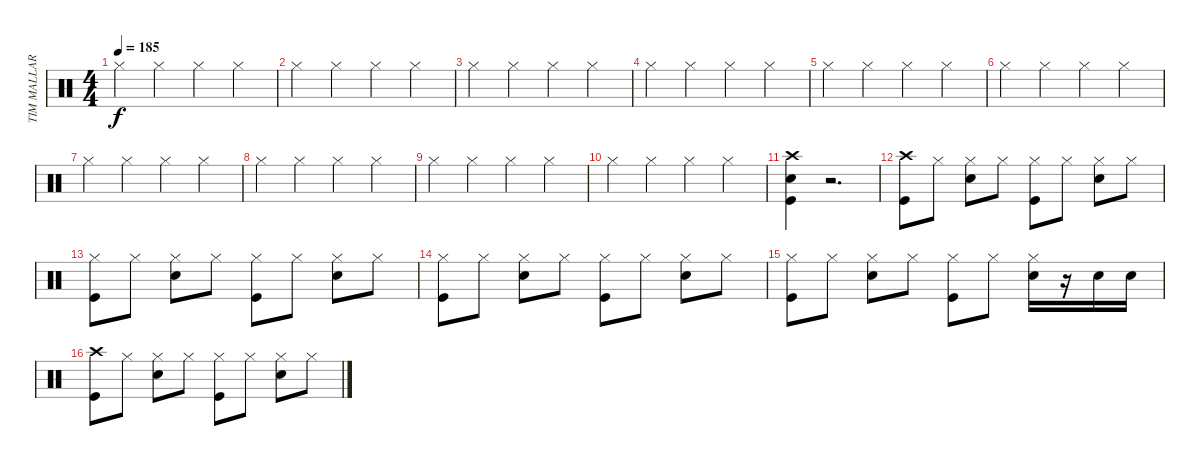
\track ("TIM MALLARE - drums" "TIM MALLAR") {instrument percussion}
\staff {score}
\articulation defaults
\ts (4 4)
\tempo 185
\clef neutral
\ks c "Hi-Hat (closed)".4{dy f} "Hi-Hat (closed)".4 "Hi-Hat (closed)".4 "Hi-Hat (closed)".4
|
"Hi-Hat (closed)".4 "Hi-Hat (closed)".4 "Hi-Hat (closed)".4 "Hi-Hat (closed)".4 |
"Hi-Hat (closed)".4 "Hi-Hat (closed)".4 "Hi-Hat (closed)".4 "Hi-Hat (closed)".4 |
"Hi-Hat (closed)".4 "Hi-Hat (closed)".4 "Hi-Hat (closed)".4 "Hi-Hat (closed)".4 |
"Hi-Hat (closed)".4 "Hi-Hat (closed)".4 "Hi-Hat (closed)".4 "Hi-Hat (closed)".4 |
"Hi-Hat (closed)".4 "Hi-Hat (closed)".4 "Hi-Hat (closed)".4 "Hi-Hat (closed)".4 |
"Hi-Hat (closed)".4 "Hi-Hat (closed)".4 "Hi-Hat (closed)".4 "Hi-Hat (closed)".4 |
"Hi-Hat (closed)".4 "Hi-Hat (closed)".4 "Hi-Hat (closed)".4 "Hi-Hat (closed)".4 |
"Hi-Hat (closed)".4 "Hi-Hat (closed)".4 "Hi-Hat (closed)".4 "Hi-Hat (closed)".4 |
"Hi-Hat (closed)".4 "Hi-Hat (closed)".4 "Hi-Hat (closed)".4 "Hi-Hat (closed)".4 |
("Crash high (hit)" "Electric Snare (hit)" "Kick (hit)").4 r.2{d} |
("Crash high (hit)" "Kick (hit)").8 "Hi-Hat (closed)".8 ("Hi-Hat (closed)" "Electric Snare (hit)").8 "Hi-Hat (closed)".8 ("Hi-Hat (closed)" "Kick (hit)").8 "Hi-Hat (closed)".8 ("Hi-Hat (closed)" "Electric Snare (hit)").8 "Hi-Hat (closed)".8 |
("Hi-Hat (closed)" "Kick (hit)").8 "Hi-Hat (closed)".8 ("Hi-Hat (closed)" "Electric Snare (hit)").8 "Hi-Hat (closed)".8 ("Hi-Hat (closed)" "Kick (hit)").8 "Hi-Hat (closed)".8 ("Hi-Hat (closed)" "Electric Snare (hit)").8 "Hi-Hat (closed)".8 |
("Hi-Hat (closed)" "Kick (hit)").8 "Hi-Hat (closed)".8 ("Hi-Hat (closed)" "Electric Snare (hit)").8 "Hi-Hat (closed)".8 ("Hi-Hat (closed)" "Kick (hit)").8 "Hi-Hat (closed)".8 ("Hi-Hat (closed)" "Electric Snare (hit)").8 "Hi-Hat (closed)".8 |
("Hi-Hat (closed)" "Kick (hit)").8 "Hi-Hat (closed)".8 ("Hi-Hat (closed)" "Electric Snare (hit)").8 "Hi-Hat (closed)".8 ("Hi-Hat (closed)" "Kick (hit)").8 "Hi-Hat (closed)".8 ("Hi-Hat (closed)" "Electric Snare (hit)").16 r.16 "Electric Snare (hit)".16 "Electric Snare (hit)".16 |
("Crash high (hit)" "Kick (hit)").8 "Hi-Hat (closed)".8 ("Hi-Hat (closed)" "Electric Snare (hit)").8 "Hi-Hat (closed)".8 ("Hi-Hat (closed)" "Kick (hit)").8 "Hi-Hat (closed)".8 ("Hi-Hat (closed)" "Electric Snare (hit)").8 "Hi-Hat (closed)".8
